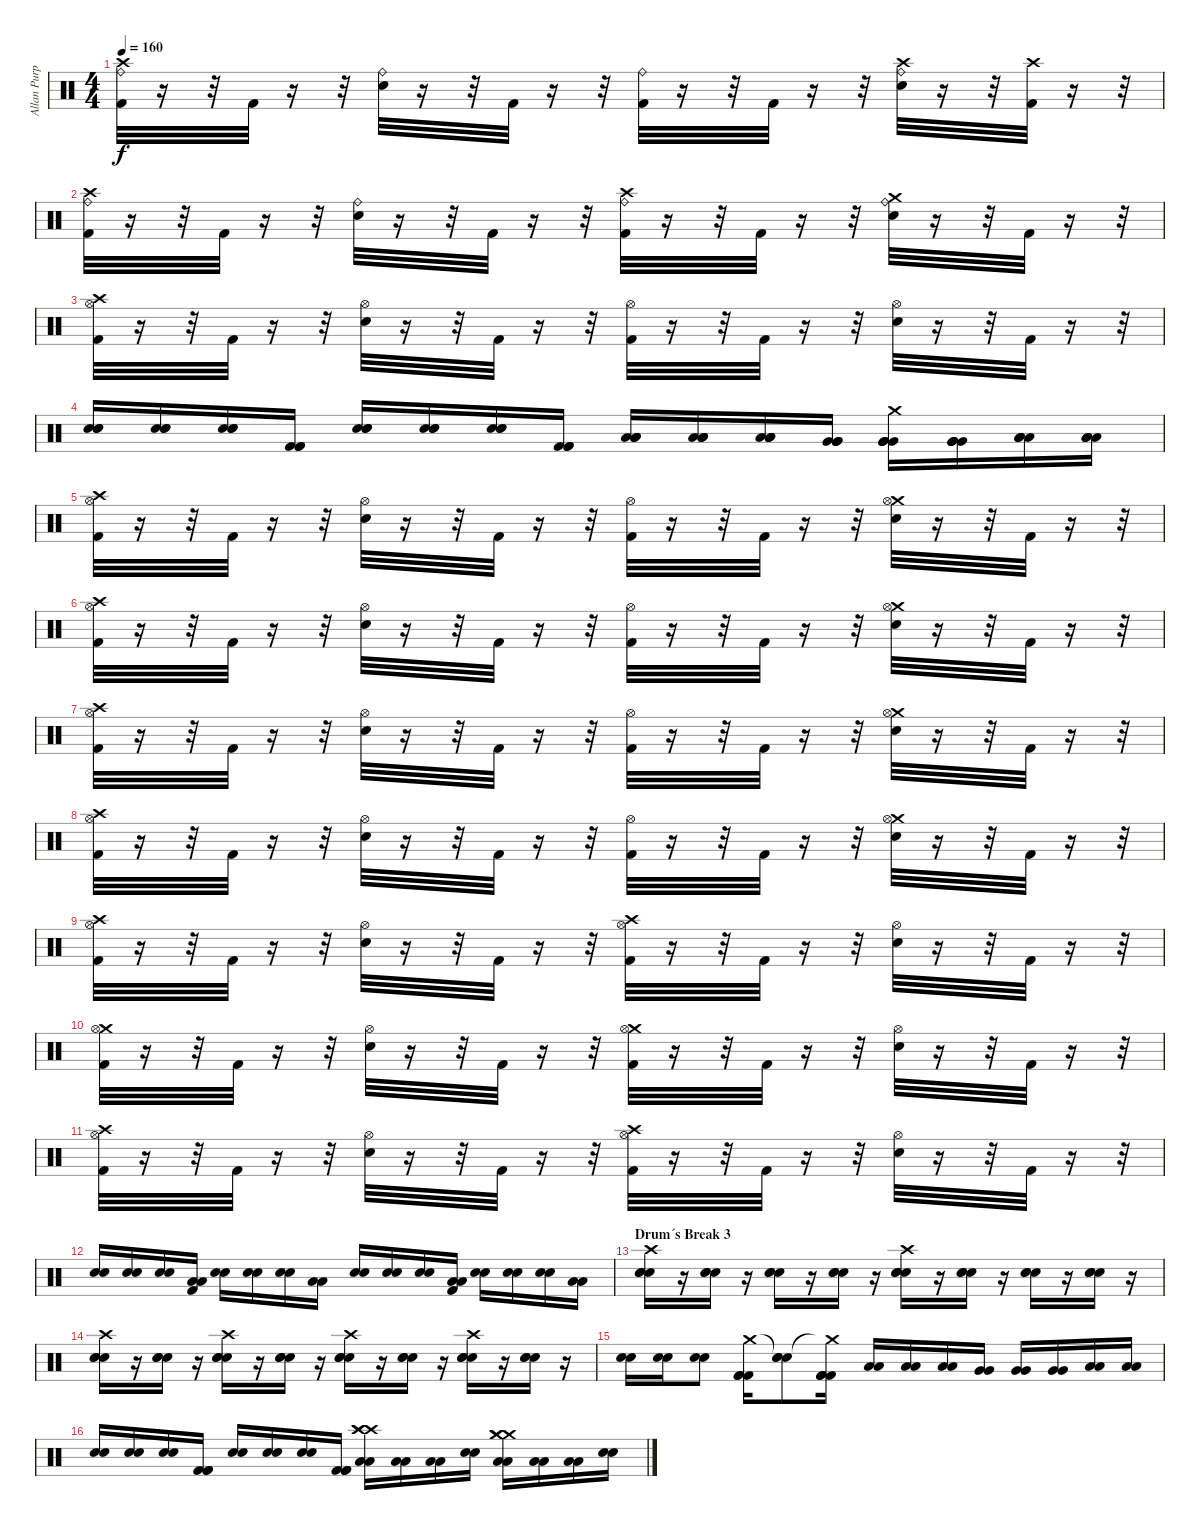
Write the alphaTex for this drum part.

\track ("Allan Purple" "Allan Purp") {instrument percussion}
\staff {score}
\articulation defaults
\ts (4 4)
\tempo 160
\clef neutral
\ks c
("Crash high (hit)" "Ride (bell)" "Kick (hit) 2").32{dy f} r.16 r.32 "Kick (hit) 2".32 r.16 r.32 ("Ride (bell)" "Electric Snare (hit)").32 r.16 r.32 "Kick (hit) 2".32 r.16 r.32 ("Ride (bell)" "Kick (hit) 2").32 r.16 r.32 "Kick (hit) 2".32 r.16 r.32 ("Crash high (hit)" "Ride (bell)" "Electric Snare (hit)").32 r.16 r.32 ("Crash high (hit)" "Kick (hit) 2").32 r.16 r.32 |
("Crash high (hit)" "Ride (bell)" "Kick (hit) 2").32 r.16 r.32 "Kick (hit) 2".32 r.16 r.32 ("Ride (bell)" "Electric Snare (hit)").32 r.16 r.32 "Kick (hit) 2".32 r.16 r.32 ("Crash high (hit)" "Ride (bell)" "Kick (hit) 2").32 r.16 r.32 "Kick (hit) 2".32 r.16 r.32 ("Crash medium (hit)" "Ride (bell)" "Electric Snare (hit)").32 r.16 r.32 "Kick (hit) 2".32 r.16 r.32 |
("Crash high (hit)" "Hi-Hat (open)" "Kick (hit) 2").32 r.16 r.32 "Kick (hit) 2".32 r.16 r.32 ("Hi-Hat (open)" "Electric Snare (hit)").32 r.16 r.32 "Kick (hit) 2".32 r.16 r.32 ("Hi-Hat (open)" "Kick (hit) 2").32 r.16 r.32 "Kick (hit) 2".32 r.16 r.32 ("Hi-Hat (open)" "Electric Snare (hit)").32 r.16 r.32 "Kick (hit) 2".32 r.16 r.32 |
("Electric Snare (hit)" "Electric Snare (hit)" "Electric Snare (hit)").16 ("Electric Snare (hit)" "Electric Snare (hit)" "Electric Snare (hit)").16 ("Electric Snare (hit)" "Electric Snare (hit)" "Electric Snare (hit)").16 ("Kick (hit) 2" "Kick (hit) 2" "Kick (hit) 2").16 ("Electric Snare (hit)" "Electric Snare (hit)" "Electric Snare (hit)").16 ("Electric Snare (hit)" "Electric Snare (hit)" "Electric Snare (hit)").16 ("Electric Snare (hit)" "Electric Snare (hit)" "Electric Snare (hit)").16 ("Kick (hit) 2" "Kick (hit) 2" "Kick (hit) 2").16 ("Low Tom (hit)" "Low Tom (hit)" "Low Tom (hit)" "Low Tom (hit)").16 ("Low Tom (hit)" "Low Tom (hit)" "Low Tom (hit)" "Low Tom (hit)").16 ("Low Tom (hit)" "Low Tom (hit)" "Low Tom (hit)" "Low Tom (hit)").16 ("Very Low Tom (hit)" "Very Low Tom (hit)" "Very Low Tom (hit)" "Very Low Tom (hit)").16 ("Crash medium (hit)" "Very Low Tom (hit)" "Very Low Tom (hit)" "Very Low Tom (hit)" "Very Low Tom (hit)").16 ("Very Low Tom (hit)" "Very Low Tom (hit)" "Very Low Tom (hit)" "Very Low Tom (hit)").16 ("Low Floor Tom (hit)" "Low Floor Tom (hit)" "Low Floor Tom (hit)" "Low Floor Tom (hit)").16 ("Low Floor Tom (hit)" "Low Floor Tom (hit)" "Low Floor Tom (hit)" "Low Floor Tom (hit)").16 |
("Crash high (hit)" "Hi-Hat (open)" "Kick (hit) 2").32 r.16 r.32 "Kick (hit) 2".32 r.16 r.32 ("Hi-Hat (open)" "Electric Snare (hit)").32 r.16 r.32 "Kick (hit) 2".32 r.16 r.32 ("Hi-Hat (open)" "Kick (hit) 2").32 r.16 r.32 "Kick (hit) 2".32 r.16 r.32 ("Crash medium (hit)" "Hi-Hat (open)" "Electric Snare (hit)").32 r.16 r.32 "Kick (hit) 2".32 r.16 r.32 |
("Crash high (hit)" "Hi-Hat (open)" "Kick (hit) 2").32 r.16 r.32 "Kick (hit) 2".32 r.16 r.32 ("Hi-Hat (open)" "Electric Snare (hit)").32 r.16 r.32 "Kick (hit) 2".32 r.16 r.32 ("Hi-Hat (open)" "Kick (hit) 2").32 r.16 r.32 "Kick (hit) 2".32 r.16 r.32 ("Crash medium (hit)" "Hi-Hat (open)" "Electric Snare (hit)").32 r.16 r.32 "Kick (hit) 2".32 r.16 r.32 |
("Crash high (hit)" "Hi-Hat (open)" "Kick (hit) 2").32 r.16 r.32 "Kick (hit) 2".32 r.16 r.32 ("Hi-Hat (open)" "Electric Snare (hit)").32 r.16 r.32 "Kick (hit) 2".32 r.16 r.32 ("Hi-Hat (open)" "Kick (hit) 2").32 r.16 r.32 "Kick (hit) 2".32 r.16 r.32 ("Crash medium (hit)" "Hi-Hat (open)" "Electric Snare (hit)").32 r.16 r.32 "Kick (hit) 2".32 r.16 r.32 |
("Crash high (hit)" "Hi-Hat (open)" "Kick (hit) 2").32 r.16 r.32 "Kick (hit) 2".32 r.16 r.32 ("Hi-Hat (open)" "Electric Snare (hit)").32 r.16 r.32 "Kick (hit) 2".32 r.16 r.32 ("Hi-Hat (open)" "Kick (hit) 2").32 r.16 r.32 "Kick (hit) 2".32 r.16 r.32 ("Crash medium (hit)" "Hi-Hat (open)" "Electric Snare (hit)").32 r.16 r.32 "Kick (hit) 2".32 r.16 r.32 |
("Crash high (hit)" "Hi-Hat (open)" "Kick (hit) 2").32 r.16 r.32 "Kick (hit) 2".32 r.16 r.32 ("Hi-Hat (open)" "Electric Snare (hit)").32 r.16 r.32 "Kick (hit) 2".32 r.16 r.32 ("Crash high (hit)" "Hi-Hat (open)" "Kick (hit) 2").32 r.16 r.32 "Kick (hit) 2".32 r.16 r.32 ("Hi-Hat (open)" "Electric Snare (hit)").32 r.16 r.32 "Kick (hit) 2".32 r.16 r.32 |
("Crash medium (hit)" "Hi-Hat (open)" "Kick (hit) 2").32 r.16 r.32 "Kick (hit) 2".32 r.16 r.32 ("Hi-Hat (open)" "Electric Snare (hit)").32 r.16 r.32 "Kick (hit) 2".32 r.16 r.32 ("Crash medium (hit)" "Hi-Hat (open)" "Kick (hit) 2").32 r.16 r.32 "Kick (hit) 2".32 r.16 r.32 ("Hi-Hat (open)" "Electric Snare (hit)").32 r.16 r.32 "Kick (hit) 2".32 r.16 r.32 |
("Crash high (hit)" "Hi-Hat (open)" "Kick (hit) 2").32 r.16 r.32 "Kick (hit) 2".32 r.16 r.32 ("Hi-Hat (open)" "Electric Snare (hit)").32 r.16 r.32 "Kick (hit) 2".32 r.16 r.32 ("Crash high (hit)" "Hi-Hat (open)" "Kick (hit) 2").32 r.16 r.32 "Kick (hit) 2".32 r.16 r.32 ("Hi-Hat (open)" "Electric Snare (hit)").32 r.16 r.32 "Kick (hit) 2".32 r.16 r.32 |
("Electric Snare (hit)" "Electric Snare (hit)").16 ("Electric Snare (hit)" "Electric Snare (hit)").16 ("Electric Snare (hit)" "Electric Snare (hit)").16 ("Kick (hit) 2" "Low Tom (hit)" "Low Tom (hit)").16 ("Electric Snare (hit)" "Electric Snare (hit)").16 ("Electric Snare (hit)" "Electric Snare (hit)").16 ("Electric Snare (hit)" "Electric Snare (hit)").16 ("Low Tom (hit)" "Low Tom (hit)").16 ("Electric Snare (hit)" "Electric Snare (hit)").16 ("Electric Snare (hit)" "Electric Snare (hit)").16 ("Electric Snare (hit)" "Electric Snare (hit)").16 ("Kick (hit) 2" "Low Tom (hit)" "Low Tom (hit)").16 ("Electric Snare (hit)" "Electric Snare (hit)").16 ("Electric Snare (hit)" "Electric Snare (hit)").16 ("Electric Snare (hit)" "Electric Snare (hit)").16 ("Low Tom (hit)" "Low Tom (hit)").16 |
\section ("" "Drum´s Break 3")
("Crash high (hit)" "Electric Snare (hit)" "Electric Snare (hit)" "Electric Snare (hit)").16 r.16 ("Electric Snare (hit)" "Electric Snare (hit)" "Electric Snare (hit)").16 r.16 ("Electric Snare (hit)" "Electric Snare (hit)" "Electric Snare (hit)").16 r.16 ("Electric Snare (hit)" "Electric Snare (hit)" "Electric Snare (hit)").16 r.16 ("Crash high (hit)" "Electric Snare (hit)" "Electric Snare (hit)" "Electric Snare (hit)").16 r.16 ("Electric Snare (hit)" "Electric Snare (hit)" "Electric Snare (hit)").16 r.16 ("Electric Snare (hit)" "Electric Snare (hit)" "Electric Snare (hit)").16 r.16 ("Electric Snare (hit)" "Electric Snare (hit)" "Electric Snare (hit)").16 r.16 |
("Crash high (hit)" "Electric Snare (hit)" "Electric Snare (hit)" "Electric Snare (hit)").16 r.16 ("Electric Snare (hit)" "Electric Snare (hit)" "Electric Snare (hit)").16 r.16 ("Crash high (hit)" "Electric Snare (hit)" "Electric Snare (hit)" "Electric Snare (hit)").16 r.16 ("Electric Snare (hit)" "Electric Snare (hit)" "Electric Snare (hit)").16 r.16 ("Crash high (hit)" "Electric Snare (hit)" "Electric Snare (hit)" "Electric Snare (hit)").16 r.16 ("Electric Snare (hit)" "Electric Snare (hit)" "Electric Snare (hit)").16 r.16 ("Crash high (hit)" "Electric Snare (hit)" "Electric Snare (hit)" "Electric Snare (hit)").16 r.16 ("Electric Snare (hit)" "Electric Snare (hit)" "Electric Snare (hit)").16 r.16 |
("Electric Snare (hit)" "Electric Snare (hit)").16 ("Electric Snare (hit)" "Electric Snare (hit)").16 ("Electric Snare (hit)" "Electric Snare (hit)").8 ("Crash medium (hit)" "Kick (hit) 2" "Kick (hit) 2" "Kick (hit) 2").16 ("Snare (hit)"{t} "Electric Snare (hit)" "Electric Snare (hit)").8 ("Crash medium (hit)"{t} "Kick (hit) 2" "Kick (hit) 2" "Kick (hit) 2").16 ("Low Tom (hit)" "Low Tom (hit)").16 ("Low Tom (hit)" "Low Tom (hit)").16 ("Low Tom (hit)" "Low Tom (hit)").16 ("Very Low Tom (hit)" "Very Low Tom (hit)").16 ("Very Low Tom (hit)" "Very Low Tom (hit)").16 ("Very Low Tom (hit)" "Very Low Tom (hit)").16 ("Low Floor Tom (hit)" "Low Floor Tom (hit)").16 ("Low Floor Tom (hit)" "Low Floor Tom (hit)").16 |
("Electric Snare (hit)" "Electric Snare (hit)").16 ("Electric Snare (hit)" "Electric Snare (hit)").16 ("Electric Snare (hit)" "Electric Snare (hit)").16 ("Kick (hit) 2" "Kick (hit) 2" "Kick (hit) 2").16 ("Electric Snare (hit)" "Electric Snare (hit)").16 ("Electric Snare (hit)" "Electric Snare (hit)").16 ("Electric Snare (hit)" "Electric Snare (hit)").16 ("Kick (hit) 2" "Kick (hit) 2" "Kick (hit) 2").16 ("Crash high (hit)" "Crash high (hit)" "Crash high (hit)" "Low Tom (hit)" "Low Tom (hit)").16 ("Low Tom (hit)" "Low Tom (hit)").16 ("Low Tom (hit)" "Low Tom (hit)").16 ("Electric Snare (hit)" "Electric Snare (hit)").16 ("Crash medium (hit)" "Crash medium (hit)" "Crash medium (hit)" "Low Tom (hit)" "Low Tom (hit)").16 ("Low Tom (hit)" "Low Tom (hit)").16 ("Low Tom (hit)" "Low Tom (hit)").16 ("Electric Snare (hit)" "Electric Snare (hit)").16
